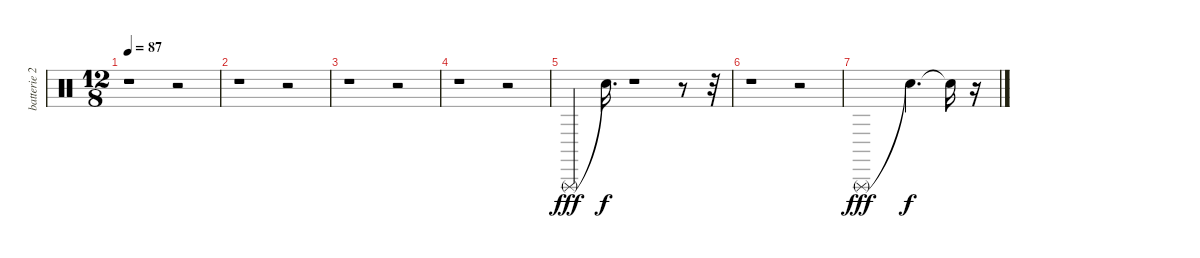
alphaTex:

\track ("batterie 2" "batterie 2") {instrument percussion}
\staff {score}
\articulation defaults
\ts (12 8)
\tempo 87
\clef neutral
\ks c
r.1{dy f} r.2 |
r.1 r.2 |
r.1 r.2 |
r.1 r.2 |
"Triangle (rnute)".4{dy fff} "Snare (hit)"{t}.16{d dy f} r.1 r.8 r.32 |
r.1 r.2 |
"Triangle (rnute)".1{dy fff} "Snare (hit)"{t}.4{d dy f} "Snare (hit)"{t}.16 r.16
